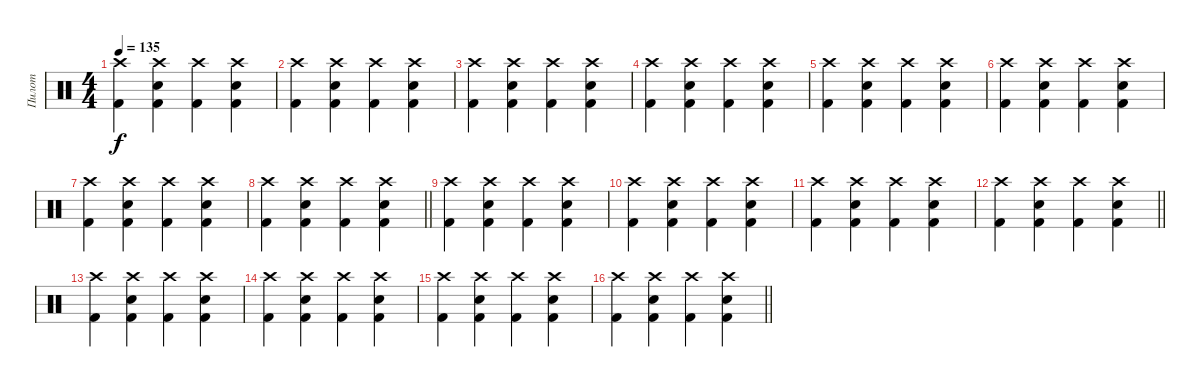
\track ("Пилот" "Пилот") {instrument percussion}
\staff {score}
\articulation defaults
\ts (4 4)
\tempo 135
\clef neutral
\ks c
("Crash high (hit)" "Kick (hit) 2").4{dy f} ("Crash high (hit)" "Kick (hit) 2" "Snare (hit) 2").4 ("Crash high (hit)" "Kick (hit) 2").4 ("Crash high (hit)" "Kick (hit) 2" "Snare (hit) 2").4 |
("Crash high (hit)" "Kick (hit) 2").4 ("Crash high (hit)" "Kick (hit) 2" "Snare (hit) 2").4 ("Crash high (hit)" "Kick (hit) 2").4 ("Crash high (hit)" "Kick (hit) 2" "Snare (hit) 2").4 |
("Crash high (hit)" "Kick (hit) 2").4 ("Crash high (hit)" "Kick (hit) 2" "Snare (hit) 2").4 ("Crash high (hit)" "Kick (hit) 2").4 ("Crash high (hit)" "Kick (hit) 2" "Snare (hit) 2").4 |
("Crash high (hit)" "Kick (hit) 2").4 ("Crash high (hit)" "Kick (hit) 2" "Snare (hit) 2").4 ("Crash high (hit)" "Kick (hit) 2").4 ("Crash high (hit)" "Kick (hit) 2" "Snare (hit) 2").4 |
("Crash high (hit)" "Kick (hit) 2").4 ("Crash high (hit)" "Kick (hit) 2" "Snare (hit) 2").4 ("Crash high (hit)" "Kick (hit) 2").4 ("Crash high (hit)" "Kick (hit) 2" "Snare (hit) 2").4 |
("Crash high (hit)" "Kick (hit) 2").4 ("Crash high (hit)" "Kick (hit) 2" "Snare (hit) 2").4 ("Crash high (hit)" "Kick (hit) 2").4 ("Crash high (hit)" "Kick (hit) 2" "Snare (hit) 2").4 |
("Crash high (hit)" "Kick (hit) 2").4 ("Crash high (hit)" "Kick (hit) 2" "Snare (hit) 2").4 ("Crash high (hit)" "Kick (hit) 2").4 ("Crash high (hit)" "Kick (hit) 2" "Snare (hit) 2").4 |
\barLineRight lightlight
("Crash high (hit)" "Kick (hit) 2").4 ("Crash high (hit)" "Kick (hit) 2" "Snare (hit) 2").4 ("Crash high (hit)" "Kick (hit) 2").4 ("Crash high (hit)" "Kick (hit) 2" "Snare (hit) 2").4 |
("Crash high (hit)" "Kick (hit) 2").4 ("Crash high (hit)" "Kick (hit) 2" "Snare (hit) 2").4 ("Crash high (hit)" "Kick (hit) 2").4 ("Crash high (hit)" "Kick (hit) 2" "Snare (hit) 2").4 |
("Crash high (hit)" "Kick (hit) 2").4 ("Crash high (hit)" "Kick (hit) 2" "Snare (hit) 2").4 ("Crash high (hit)" "Kick (hit) 2").4 ("Crash high (hit)" "Kick (hit) 2" "Snare (hit) 2").4 |
("Crash high (hit)" "Kick (hit) 2").4 ("Crash high (hit)" "Kick (hit) 2" "Snare (hit) 2").4 ("Crash high (hit)" "Kick (hit) 2").4 ("Crash high (hit)" "Kick (hit) 2" "Snare (hit) 2").4 |
\barLineRight lightlight
("Crash high (hit)" "Kick (hit) 2").4 ("Crash high (hit)" "Kick (hit) 2" "Snare (hit) 2").4 ("Crash high (hit)" "Kick (hit) 2").4 ("Crash high (hit)" "Kick (hit) 2" "Snare (hit) 2").4 |
("Crash high (hit)" "Kick (hit) 2").4 ("Crash high (hit)" "Kick (hit) 2" "Snare (hit) 2").4 ("Crash high (hit)" "Kick (hit) 2").4 ("Crash high (hit)" "Kick (hit) 2" "Snare (hit) 2").4 |
("Crash high (hit)" "Kick (hit) 2").4 ("Crash high (hit)" "Kick (hit) 2" "Snare (hit) 2").4 ("Crash high (hit)" "Kick (hit) 2").4 ("Crash high (hit)" "Kick (hit) 2" "Snare (hit) 2").4 |
("Crash high (hit)" "Kick (hit) 2").4 ("Crash high (hit)" "Kick (hit) 2" "Snare (hit) 2").4 ("Crash high (hit)" "Kick (hit) 2").4 ("Crash high (hit)" "Kick (hit) 2" "Snare (hit) 2").4 |
\barLineRight lightlight
("Crash high (hit)" "Kick (hit) 2").4 ("Crash high (hit)" "Kick (hit) 2" "Snare (hit) 2").4 ("Crash high (hit)" "Kick (hit) 2").4 ("Crash high (hit)" "Kick (hit) 2" "Snare (hit) 2").4
